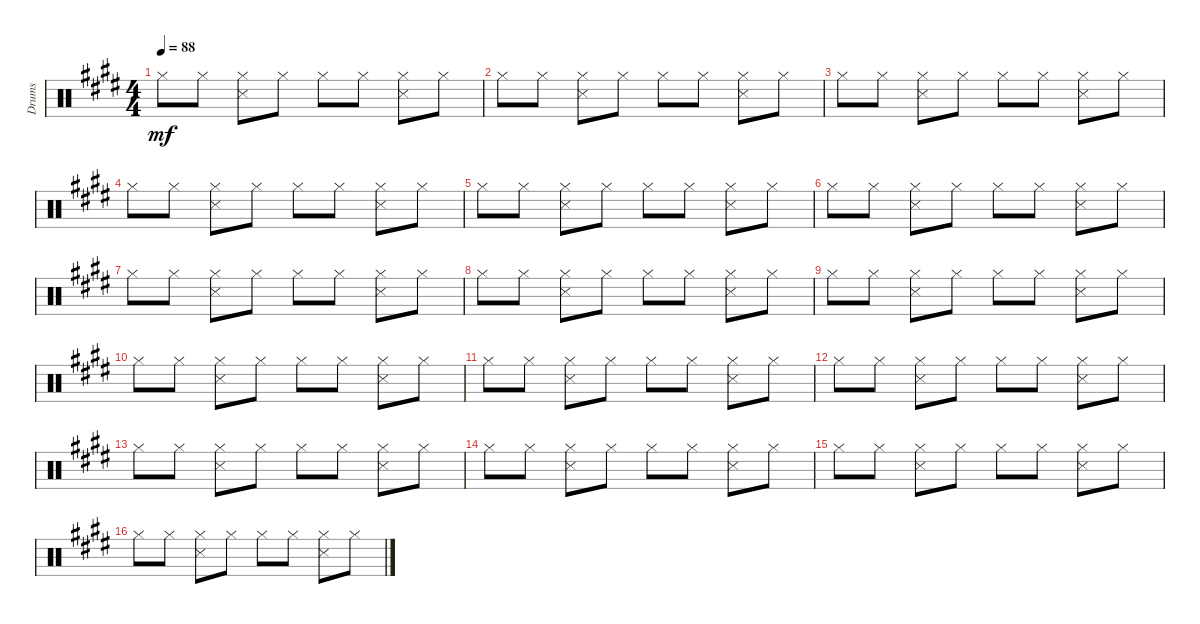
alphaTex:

\track ("Drums" "Drums") {instrument percussion}
\staff {score}
\articulation defaults
\ts (4 4)
\tempo 88
\clef neutral
\ks e "Hi-Hat (closed)".8{dy mf} "Hi-Hat (closed)".8
("Hi-Hat (closed)" "Metronome (hit)").8 "Hi-Hat (closed)".8 "Hi-Hat (closed)".8 "Hi-Hat (closed)".8 ("Hi-Hat (closed)" "Metronome (hit)").8 "Hi-Hat (closed)".8 |
"Hi-Hat (closed)".8 "Hi-Hat (closed)".8 ("Hi-Hat (closed)" "Metronome (hit)").8 "Hi-Hat (closed)".8 "Hi-Hat (closed)".8 "Hi-Hat (closed)".8 ("Hi-Hat (closed)" "Metronome (hit)").8 "Hi-Hat (closed)".8 |
"Hi-Hat (closed)".8 "Hi-Hat (closed)".8 ("Hi-Hat (closed)" "Metronome (hit)").8 "Hi-Hat (closed)".8 "Hi-Hat (closed)".8 "Hi-Hat (closed)".8 ("Hi-Hat (closed)" "Metronome (hit)").8 "Hi-Hat (closed)".8 |
"Hi-Hat (closed)".8 "Hi-Hat (closed)".8 ("Hi-Hat (closed)" "Metronome (hit)").8 "Hi-Hat (closed)".8 "Hi-Hat (closed)".8 "Hi-Hat (closed)".8 ("Hi-Hat (closed)" "Metronome (hit)").8 "Hi-Hat (closed)".8 |
"Hi-Hat (closed)".8 "Hi-Hat (closed)".8 ("Hi-Hat (closed)" "Metronome (hit)").8 "Hi-Hat (closed)".8 "Hi-Hat (closed)".8 "Hi-Hat (closed)".8 ("Hi-Hat (closed)" "Metronome (hit)").8 "Hi-Hat (closed)".8 |
"Hi-Hat (closed)".8 "Hi-Hat (closed)".8 ("Hi-Hat (closed)" "Metronome (hit)").8 "Hi-Hat (closed)".8 "Hi-Hat (closed)".8 "Hi-Hat (closed)".8 ("Hi-Hat (closed)" "Metronome (hit)").8 "Hi-Hat (closed)".8 |
"Hi-Hat (closed)".8 "Hi-Hat (closed)".8 ("Hi-Hat (closed)" "Metronome (hit)").8 "Hi-Hat (closed)".8 "Hi-Hat (closed)".8 "Hi-Hat (closed)".8 ("Hi-Hat (closed)" "Metronome (hit)").8 "Hi-Hat (closed)".8 |
"Hi-Hat (closed)".8 "Hi-Hat (closed)".8 ("Hi-Hat (closed)" "Metronome (hit)").8 "Hi-Hat (closed)".8 "Hi-Hat (closed)".8 "Hi-Hat (closed)".8 ("Hi-Hat (closed)" "Metronome (hit)").8 "Hi-Hat (closed)".8 |
"Hi-Hat (closed)".8 "Hi-Hat (closed)".8 ("Hi-Hat (closed)" "Metronome (hit)").8 "Hi-Hat (closed)".8 "Hi-Hat (closed)".8 "Hi-Hat (closed)".8 ("Hi-Hat (closed)" "Metronome (hit)").8 "Hi-Hat (closed)".8 |
"Hi-Hat (closed)".8 "Hi-Hat (closed)".8 ("Hi-Hat (closed)" "Metronome (hit)").8 "Hi-Hat (closed)".8 "Hi-Hat (closed)".8 "Hi-Hat (closed)".8 ("Hi-Hat (closed)" "Metronome (hit)").8 "Hi-Hat (closed)".8 |
"Hi-Hat (closed)".8 "Hi-Hat (closed)".8 ("Hi-Hat (closed)" "Metronome (hit)").8 "Hi-Hat (closed)".8 "Hi-Hat (closed)".8 "Hi-Hat (closed)".8 ("Hi-Hat (closed)" "Metronome (hit)").8 "Hi-Hat (closed)".8 |
"Hi-Hat (closed)".8 "Hi-Hat (closed)".8 ("Hi-Hat (closed)" "Metronome (hit)").8 "Hi-Hat (closed)".8 "Hi-Hat (closed)".8 "Hi-Hat (closed)".8 ("Hi-Hat (closed)" "Metronome (hit)").8 "Hi-Hat (closed)".8 |
"Hi-Hat (closed)".8 "Hi-Hat (closed)".8 ("Hi-Hat (closed)" "Metronome (hit)").8 "Hi-Hat (closed)".8 "Hi-Hat (closed)".8 "Hi-Hat (closed)".8 ("Hi-Hat (closed)" "Metronome (hit)").8 "Hi-Hat (closed)".8 |
"Hi-Hat (closed)".8 "Hi-Hat (closed)".8 ("Hi-Hat (closed)" "Metronome (hit)").8 "Hi-Hat (closed)".8 "Hi-Hat (closed)".8 "Hi-Hat (closed)".8 ("Hi-Hat (closed)" "Metronome (hit)").8 "Hi-Hat (closed)".8 |
"Hi-Hat (closed)".8 "Hi-Hat (closed)".8 ("Hi-Hat (closed)" "Metronome (hit)").8 "Hi-Hat (closed)".8 "Hi-Hat (closed)".8 "Hi-Hat (closed)".8 ("Hi-Hat (closed)" "Metronome (hit)").8 "Hi-Hat (closed)".8 |
"Hi-Hat (closed)".8 "Hi-Hat (closed)".8 ("Hi-Hat (closed)" "Metronome (hit)").8 "Hi-Hat (closed)".8 "Hi-Hat (closed)".8 "Hi-Hat (closed)".8 ("Hi-Hat (closed)" "Metronome (hit)").8 "Hi-Hat (closed)".8
